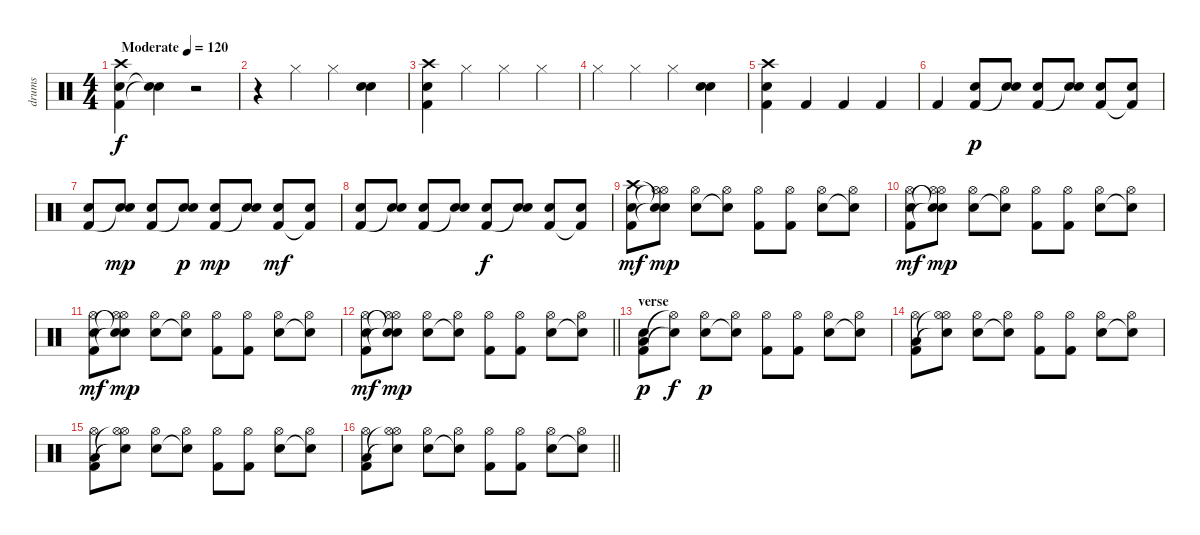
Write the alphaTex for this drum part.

\track ("drums" "drums") {instrument percussion}
\staff {score}
\articulation defaults
\ts (4 4)
\tempo (120 "Moderate")
\clef neutral
\ks c
("Kick (hit) 2" "Electric Snare (hit)" "Crash high (hit)").4{dy f} ("Snare (hit)"{t} "Snare (hit)"{t}).4 r.2 |
r.4 "Hi-Hat (closed)".4 "Hi-Hat (closed)".4 ("Electric Snare (hit)" "Electric Snare (hit)").4 |
("Kick (hit) 2" "Electric Snare (hit)" "Crash high (hit)").4 "Hi-Hat (closed)".4 "Hi-Hat (closed)".4 "Hi-Hat (closed)".4 |
"Hi-Hat (closed)".4 "Hi-Hat (closed)".4 "Hi-Hat (closed)".4 ("Electric Snare (hit)" "Electric Snare (hit)").4 |
("Kick (hit) 2" "Electric Snare (hit)" "Crash high (hit)").4 "Kick (hit) 2".4 "Kick (hit) 2".4 "Kick (hit) 2".4 |
"Kick (hit) 2".4 ("Kick (hit) 2" "Electric Snare (hit)").8{dy p} ("Snare (hit)"{t} "Electric Snare (hit)").8 ("Kick (hit) 2" "Electric Snare (hit)").8 ("Snare (hit)"{t} "Electric Snare (hit)").8 ("Kick (hit) 2" "Electric Snare (hit)").8 ("Kick (hit) 2"{t} "Electric Snare (hit)").8 |
("Kick (hit) 2" "Electric Snare (hit)").8 ("Snare (hit)"{t} "Electric Snare (hit)").8{dy mp} ("Kick (hit) 2" "Electric Snare (hit)").8 ("Snare (hit)"{t} "Electric Snare (hit)").8{dy p} ("Kick (hit) 2" "Electric Snare (hit)").8{dy mp} ("Snare (hit)"{t} "Electric Snare (hit)").8 ("Kick (hit) 2" "Electric Snare (hit)").8{dy mf} ("Kick (hit) 2"{t} "Electric Snare (hit)").8 |
("Kick (hit) 2" "Electric Snare (hit)").8 ("Snare (hit)"{t} "Electric Snare (hit)").8 ("Kick (hit) 2" "Electric Snare (hit)").8 ("Snare (hit)"{t} "Electric Snare (hit)").8 ("Kick (hit) 2" "Electric Snare (hit)").8{dy f} ("Snare (hit)"{t} "Electric Snare (hit)").8 ("Kick (hit) 2" "Electric Snare (hit)").8 ("Kick (hit) 2"{t} "Electric Snare (hit)").8 |
("Kick (hit) 2" "Crash high (hit)" "Electric Snare (hit)").8{dy mf} ("Snare (hit)"{t} "Snare (hit)"{t} "Hi-Hat (open)"{t} "Hi-Hat (open)").8{dy mp} ("Electric Snare (hit)" "Hi-Hat (open)").8 ("Snare (hit)"{t} "Hi-Hat (open)").8 ("Kick (hit) 2" "Hi-Hat (open)").8 ("Kick (hit) 2" "Hi-Hat (open)").8 ("Electric Snare (hit)" "Hi-Hat (open)").8 ("Snare (hit)"{t} "Hi-Hat (open)").8 |
("Kick (hit) 2" "Hi-Hat (open)" "Electric Snare (hit)").8{dy mf} ("Snare (hit)"{t} "Snare (hit)"{t} "Hi-Hat (open)"{t} "Hi-Hat (open)").8{dy mp} ("Electric Snare (hit)" "Hi-Hat (open)").8 ("Snare (hit)"{t} "Hi-Hat (open)").8 ("Kick (hit) 2" "Hi-Hat (open)").8 ("Kick (hit) 2" "Hi-Hat (open)").8 ("Electric Snare (hit)" "Hi-Hat (open)").8 ("Snare (hit)"{t} "Hi-Hat (open)").8 |
("Kick (hit) 2" "Hi-Hat (open)" "Electric Snare (hit)").8{dy mf} ("Snare (hit)"{t} "Snare (hit)"{t} "Hi-Hat (open)"{t} "Hi-Hat (open)").8{dy mp} ("Electric Snare (hit)" "Hi-Hat (open)").8 ("Snare (hit)"{t} "Hi-Hat (open)").8 ("Kick (hit) 2" "Hi-Hat (open)").8 ("Kick (hit) 2" "Hi-Hat (open)").8 ("Electric Snare (hit)" "Hi-Hat (open)").8 ("Snare (hit)"{t} "Hi-Hat (open)").8 |
\barLineRight lightlight
("Kick (hit) 2" "Hi-Hat (open)" "Electric Snare (hit)").8{dy mf} ("Snare (hit)"{t} "Snare (hit)"{t} "Hi-Hat (open)"{t} "Hi-Hat (open)").8{dy mp} ("Electric Snare (hit)" "Hi-Hat (open)").8 ("Snare (hit)"{t} "Hi-Hat (open)").8 ("Kick (hit) 2" "Hi-Hat (open)").8 ("Kick (hit) 2" "Hi-Hat (open)").8 ("Electric Snare (hit)" "Hi-Hat (open)").8 ("Snare (hit)"{t} "Hi-Hat (open)").8 |
\section ("" "verse")
("Kick (hit) 2" "Low Floor Tom (hit)" "Electric Snare (hit)").8{dy p} ("Snare (hit)"{t} "Hi-Hat (open)"{t}).8{dy f} ("Electric Snare (hit)" "Hi-Hat (open)").8{dy p} ("Snare (hit)"{t} "Hi-Hat (open)").8 ("Kick (hit) 2" "Hi-Hat (open)").8 ("Kick (hit) 2" "Hi-Hat (open)").8 ("Electric Snare (hit)" "Hi-Hat (open)").8 ("Snare (hit)"{t} "Hi-Hat (open)").8 |
("Kick (hit) 2" "Hi-Hat (open)" "Low Floor Tom (hit)").8 ("Snare (hit)"{t} "Hi-Hat (open)" "Hi-Hat (open)"{t}).8 ("Electric Snare (hit)" "Hi-Hat (open)").8 ("Snare (hit)"{t} "Hi-Hat (open)").8 ("Kick (hit) 2" "Hi-Hat (open)").8 ("Kick (hit) 2" "Hi-Hat (open)").8 ("Electric Snare (hit)" "Hi-Hat (open)").8 ("Snare (hit)"{t} "Hi-Hat (open)").8 |
("Kick (hit) 2" "Hi-Hat (open)" "Low Floor Tom (hit)").8 ("Snare (hit)"{t} "Hi-Hat (open)" "Hi-Hat (open)"{t}).8 ("Electric Snare (hit)" "Hi-Hat (open)").8 ("Snare (hit)"{t} "Hi-Hat (open)").8 ("Kick (hit) 2" "Hi-Hat (open)").8 ("Kick (hit) 2" "Hi-Hat (open)").8 ("Electric Snare (hit)" "Hi-Hat (open)").8 ("Snare (hit)"{t} "Hi-Hat (open)").8 |
\barLineRight lightlight
("Kick (hit) 2" "Hi-Hat (open)" "Low Floor Tom (hit)").8 ("Snare (hit)"{t} "Hi-Hat (open)" "Hi-Hat (open)"{t}).8 ("Electric Snare (hit)" "Hi-Hat (open)").8 ("Snare (hit)"{t} "Hi-Hat (open)").8 ("Kick (hit) 2" "Hi-Hat (open)").8 ("Kick (hit) 2" "Hi-Hat (open)").8 ("Electric Snare (hit)" "Hi-Hat (open)").8 ("Snare (hit)"{t} "Hi-Hat (open)").8
